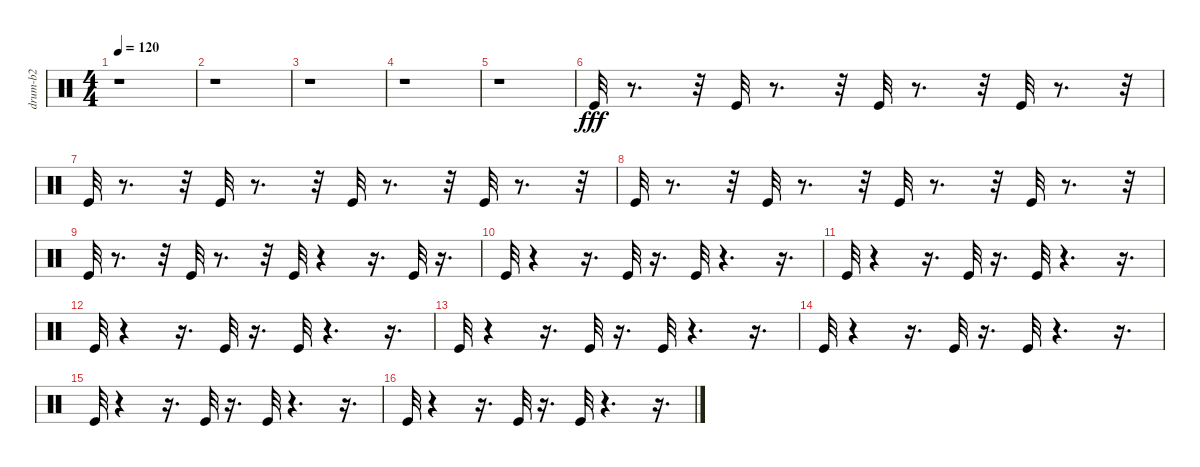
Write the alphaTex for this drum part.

\track ("drum-b2" "drum-b2") {instrument percussion}
\staff {score}
\articulation defaults
\ts (4 4)
\tempo 120
\clef neutral
\ks c
r.1{dy fff} |
r.1 |
r.1 |
r.1 |
r.1 |
"Kick (hit)".32 r.8{d} r.32 "Kick (hit)".32 r.8{d} r.32 "Kick (hit)".32 r.8{d} r.32 "Kick (hit)".32 r.8{d} r.32 |
"Kick (hit)".32 r.8{d} r.32 "Kick (hit)".32 r.8{d} r.32 "Kick (hit)".32 r.8{d} r.32 "Kick (hit)".32 r.8{d} r.32 |
"Kick (hit)".32 r.8{d} r.32 "Kick (hit)".32 r.8{d} r.32 "Kick (hit)".32 r.8{d} r.32 "Kick (hit)".32 r.8{d} r.32 |
"Kick (hit)".32 r.8{d} r.32 "Kick (hit)".32 r.8{d} r.32 "Kick (hit)".32 r.4 r.16{d} "Kick (hit)".32 r.16{d} |
"Kick (hit)".32 r.4 r.16{d} "Kick (hit)".32 r.16{d} "Kick (hit)".32 r.4{d} r.16{d} |
"Kick (hit)".32 r.4 r.16{d} "Kick (hit)".32 r.16{d} "Kick (hit)".32 r.4{d} r.16{d} |
"Kick (hit)".32 r.4 r.16{d} "Kick (hit)".32 r.16{d} "Kick (hit)".32 r.4{d} r.16{d} |
"Kick (hit)".32 r.4 r.16{d} "Kick (hit)".32 r.16{d} "Kick (hit)".32 r.4{d} r.16{d} |
"Kick (hit)".32 r.4 r.16{d} "Kick (hit)".32 r.16{d} "Kick (hit)".32 r.4{d} r.16{d} |
"Kick (hit)".32 r.4 r.16{d} "Kick (hit)".32 r.16{d} "Kick (hit)".32 r.4{d} r.16{d} |
"Kick (hit)".32 r.4 r.16{d} "Kick (hit)".32 r.16{d} "Kick (hit)".32 r.4{d} r.16{d}
